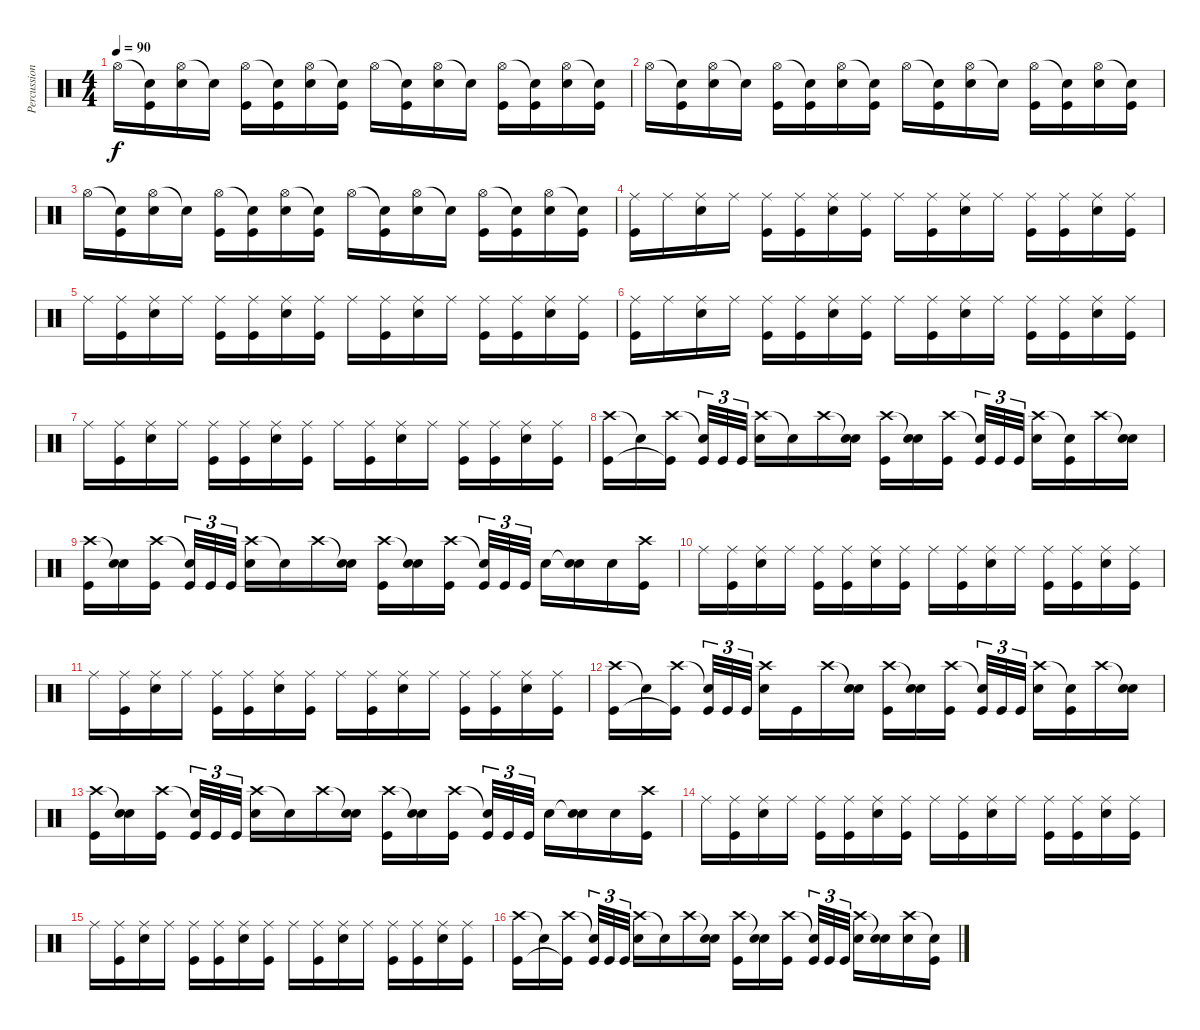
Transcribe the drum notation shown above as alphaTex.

\track ("Percussion" "Percussion") {instrument percussion}
\staff {score}
\articulation defaults
\ts (4 4)
\tempo 90
\clef neutral
\ks c "Hi-Hat (open)".16{dy f}
("Snare (hit)"{t} "Kick (hit)").16 ("Hi-Hat (open)" "Electric Snare (hit)").16 "Snare (hit)"{t}.16 ("Hi-Hat (open)" "Kick (hit)").16 ("Snare (hit)"{t} "Kick (hit)").16 ("Hi-Hat (open)" "Electric Snare (hit)").16 ("Snare (hit)"{t} "Kick (hit)").16 "Hi-Hat (open)".16 ("Snare (hit)"{t} "Kick (hit)").16 ("Hi-Hat (open)" "Electric Snare (hit)").16 "Snare (hit)"{t}.16 ("Hi-Hat (open)" "Kick (hit)").16 ("Snare (hit)"{t} "Kick (hit)").16 ("Hi-Hat (open)" "Electric Snare (hit)").16 ("Snare (hit)"{t} "Kick (hit)").16 |
"Hi-Hat (open)".16 ("Snare (hit)"{t} "Kick (hit)").16 ("Hi-Hat (open)" "Electric Snare (hit)").16 "Snare (hit)"{t}.16 ("Hi-Hat (open)" "Kick (hit)").16 ("Snare (hit)"{t} "Kick (hit)").16 ("Hi-Hat (open)" "Electric Snare (hit)").16 ("Snare (hit)"{t} "Kick (hit)").16 "Hi-Hat (open)".16 ("Snare (hit)"{t} "Kick (hit)").16 ("Hi-Hat (open)" "Electric Snare (hit)").16 "Snare (hit)"{t}.16 ("Hi-Hat (open)" "Kick (hit)").16 ("Snare (hit)"{t} "Kick (hit)").16 ("Hi-Hat (open)" "Electric Snare (hit)").16 ("Snare (hit)"{t} "Kick (hit)").16 |
"Hi-Hat (open)".16 ("Snare (hit)"{t} "Kick (hit)").16 ("Hi-Hat (open)" "Electric Snare (hit)").16 "Snare (hit)"{t}.16 ("Hi-Hat (open)" "Kick (hit)").16 ("Snare (hit)"{t} "Kick (hit)").16 ("Hi-Hat (open)" "Electric Snare (hit)").16 ("Snare (hit)"{t} "Kick (hit)").16 "Hi-Hat (open)".16 ("Snare (hit)"{t} "Kick (hit)").16 ("Hi-Hat (open)" "Electric Snare (hit)").16 "Snare (hit)"{t}.16 ("Hi-Hat (open)" "Kick (hit)").16 ("Snare (hit)"{t} "Kick (hit)").16 ("Hi-Hat (open)" "Electric Snare (hit)").16 ("Snare (hit)"{t} "Kick (hit)").16 |
("Ride (middle)" "Kick (hit)").16 "Ride (middle)".16 ("Ride (middle)" "Electric Snare (hit)").16 "Ride (middle)".16 ("Ride (middle)" "Kick (hit)").16 ("Ride (middle)" "Kick (hit)").16 ("Ride (middle)" "Electric Snare (hit)").16 ("Ride (middle)" "Kick (hit)").16 "Ride (middle)".16 ("Ride (middle)" "Kick (hit)").16 ("Ride (middle)" "Electric Snare (hit)").16 "Ride (middle)".16 ("Ride (middle)" "Kick (hit)").16 ("Ride (middle)" "Kick (hit)").16 ("Ride (middle)" "Electric Snare (hit)").16 ("Ride (middle)" "Kick (hit)").16 |
"Ride (middle)".16 ("Ride (middle)" "Kick (hit)").16 ("Ride (middle)" "Electric Snare (hit)").16 "Ride (middle)".16 ("Ride (middle)" "Kick (hit)").16 ("Ride (middle)" "Kick (hit)").16 ("Ride (middle)" "Electric Snare (hit)").16 ("Ride (middle)" "Kick (hit)").16 "Ride (middle)".16 ("Ride (middle)" "Kick (hit)").16 ("Ride (middle)" "Electric Snare (hit)").16 "Ride (middle)".16 ("Ride (middle)" "Kick (hit)").16 ("Ride (middle)" "Kick (hit)").16 ("Ride (middle)" "Electric Snare (hit)").16 ("Ride (middle)" "Kick (hit)").16 |
("Ride (middle)" "Kick (hit)").16 "Ride (middle)".16 ("Ride (middle)" "Electric Snare (hit)").16 "Ride (middle)".16 ("Ride (middle)" "Kick (hit)").16 ("Ride (middle)" "Kick (hit)").16 ("Ride (middle)" "Electric Snare (hit)").16 ("Ride (middle)" "Kick (hit)").16 "Ride (middle)".16 ("Ride (middle)" "Kick (hit)").16 ("Ride (middle)" "Electric Snare (hit)").16 "Ride (middle)".16 ("Ride (middle)" "Kick (hit)").16 ("Ride (middle)" "Kick (hit)").16 ("Ride (middle)" "Electric Snare (hit)").16 ("Ride (middle)" "Kick (hit)").16 |
"Ride (middle)".16 ("Ride (middle)" "Kick (hit)").16 ("Ride (middle)" "Electric Snare (hit)").16 "Ride (middle)".16 ("Ride (middle)" "Kick (hit)").16 ("Ride (middle)" "Kick (hit)").16 ("Ride (middle)" "Electric Snare (hit)").16 ("Ride (middle)" "Kick (hit)").16 "Ride (middle)".16 ("Ride (middle)" "Kick (hit)").16 ("Ride (middle)" "Electric Snare (hit)").16 "Ride (middle)".16 ("Ride (middle)" "Kick (hit)").16 ("Ride (middle)" "Kick (hit)").16 ("Ride (middle)" "Electric Snare (hit)").16 ("Ride (middle)" "Kick (hit)").16 |
("Crash high (hit)" "Kick (hit)").16 "Snare (hit)"{t}.16 ("Crash high (hit)" "Kick (hit)"{t}).16 ("Snare (hit)"{t} "Kick (hit)").32{tu (3 2)} "Kick (hit)".32{tu (3 2)} "Kick (hit)".32{tu (3 2)} ("Crash high (hit)" "Electric Snare (hit)").16 "Snare (hit)"{t}.16 "Crash high (hit)".16 ("Snare (hit)"{t} "Electric Snare (hit)").16 ("Crash high (hit)" "Kick (hit)").16 ("Snare (hit)"{t} "Electric Snare (hit)").16 ("Crash high (hit)" "Kick (hit)").16 ("Snare (hit)"{t} "Kick (hit)").32{tu (3 2)} "Kick (hit)".32{tu (3 2)} "Kick (hit)".32{tu (3 2)} ("Crash high (hit)" "Electric Snare (hit)").16 ("Snare (hit)"{t} "Kick (hit)").16 "Crash high (hit)".16 ("Snare (hit)"{t} "Electric Snare (hit)").16 |
("Crash high (hit)" "Kick (hit)").16 ("Snare (hit)"{t} "Electric Snare (hit)").16 ("Crash high (hit)" "Kick (hit)").16 ("Snare (hit)"{t} "Kick (hit)").32{tu (3 2)} "Kick (hit)".32{tu (3 2)} "Kick (hit)".32{tu (3 2)} ("Crash high (hit)" "Electric Snare (hit)").16 "Snare (hit)"{t}.16 "Crash high (hit)".16 ("Snare (hit)"{t} "Electric Snare (hit)").16 ("Crash high (hit)" "Kick (hit)").16 ("Snare (hit)"{t} "Electric Snare (hit)").16 ("Crash high (hit)" "Kick (hit)").16 ("Snare (hit)"{t} "Kick (hit)").32{tu (3 2)} "Kick (hit)".32{tu (3 2)} "Kick (hit)".32{tu (3 2)} "Electric Snare (hit)".16 ("Snare (hit)"{t} "Electric Snare (hit)").16 "Electric Snare (hit)".16 ("Crash high (hit)" "Kick (hit)").16 |
"Ride (middle)".16 ("Ride (middle)" "Kick (hit)").16 ("Ride (middle)" "Electric Snare (hit)").16 "Ride (middle)".16 ("Ride (middle)" "Kick (hit)").16 ("Ride (middle)" "Kick (hit)").16 ("Ride (middle)" "Electric Snare (hit)").16 ("Ride (middle)" "Kick (hit)").16 "Ride (middle)".16 ("Ride (middle)" "Kick (hit)").16 ("Ride (middle)" "Electric Snare (hit)").16 "Ride (middle)".16 ("Ride (middle)" "Kick (hit)").16 ("Ride (middle)" "Kick (hit)").16 ("Ride (middle)" "Electric Snare (hit)").16 ("Ride (middle)" "Kick (hit)").16 |
"Ride (middle)".16 ("Ride (middle)" "Kick (hit)").16 ("Ride (middle)" "Electric Snare (hit)").16 "Ride (middle)".16 ("Ride (middle)" "Kick (hit)").16 ("Ride (middle)" "Kick (hit)").16 ("Ride (middle)" "Electric Snare (hit)").16 ("Ride (middle)" "Kick (hit)").16 "Ride (middle)".16 ("Ride (middle)" "Kick (hit)").16 ("Ride (middle)" "Electric Snare (hit)").16 "Ride (middle)".16 ("Ride (middle)" "Kick (hit)").16 ("Ride (middle)" "Kick (hit)").16 ("Ride (middle)" "Electric Snare (hit)").16 ("Ride (middle)" "Kick (hit)").16 |
("Crash high (hit)" "Kick (hit)").16 "Snare (hit)"{t}.16 ("Crash high (hit)" "Kick (hit)"{t}).16 ("Snare (hit)"{t} "Kick (hit)").32{tu (3 2)} "Kick (hit)".32{tu (3 2)} "Kick (hit)".32{tu (3 2)} ("Crash high (hit)" "Electric Snare (hit)").16 "Kick (hit)".16 "Crash high (hit)".16 ("Snare (hit)"{t} "Electric Snare (hit)").16 ("Crash high (hit)" "Kick (hit)").16 ("Snare (hit)"{t} "Electric Snare (hit)").16 ("Crash high (hit)" "Kick (hit)").16 ("Snare (hit)"{t} "Kick (hit)").32{tu (3 2)} "Kick (hit)".32{tu (3 2)} "Kick (hit)".32{tu (3 2)} ("Crash high (hit)" "Electric Snare (hit)").16 ("Snare (hit)"{t} "Kick (hit)").16 "Crash high (hit)".16 ("Snare (hit)"{t} "Electric Snare (hit)").16 |
("Crash high (hit)" "Kick (hit)").16 ("Snare (hit)"{t} "Electric Snare (hit)").16 ("Crash high (hit)" "Kick (hit)").16 ("Snare (hit)"{t} "Kick (hit)").32{tu (3 2)} "Kick (hit)".32{tu (3 2)} "Kick (hit)".32{tu (3 2)} ("Crash high (hit)" "Electric Snare (hit)").16 "Snare (hit)"{t}.16 "Crash high (hit)".16 ("Snare (hit)"{t} "Electric Snare (hit)").16 ("Crash high (hit)" "Kick (hit)").16 ("Snare (hit)"{t} "Electric Snare (hit)").16 ("Crash high (hit)" "Kick (hit)").16 ("Snare (hit)"{t} "Kick (hit)").32{tu (3 2)} "Kick (hit)".32{tu (3 2)} "Kick (hit)".32{tu (3 2)} "Electric Snare (hit)".16 ("Snare (hit)"{t} "Electric Snare (hit)").16 "Electric Snare (hit)".16 ("Crash high (hit)" "Kick (hit)").16 |
"Ride (middle)".16 ("Ride (middle)" "Kick (hit)").16 ("Ride (middle)" "Electric Snare (hit)").16 "Ride (middle)".16 ("Ride (middle)" "Kick (hit)").16 ("Ride (middle)" "Kick (hit)").16 ("Ride (middle)" "Electric Snare (hit)").16 ("Ride (middle)" "Kick (hit)").16 "Ride (middle)".16 ("Ride (middle)" "Kick (hit)").16 ("Ride (middle)" "Electric Snare (hit)").16 "Ride (middle)".16 ("Ride (middle)" "Kick (hit)").16 ("Ride (middle)" "Kick (hit)").16 ("Ride (middle)" "Electric Snare (hit)").16 ("Ride (middle)" "Kick (hit)").16 |
"Ride (middle)".16 ("Ride (middle)" "Kick (hit)").16 ("Ride (middle)" "Electric Snare (hit)").16 "Ride (middle)".16 ("Ride (middle)" "Kick (hit)").16 ("Ride (middle)" "Kick (hit)").16 ("Ride (middle)" "Electric Snare (hit)").16 ("Ride (middle)" "Kick (hit)").16 "Ride (middle)".16 ("Ride (middle)" "Kick (hit)").16 ("Ride (middle)" "Electric Snare (hit)").16 "Ride (middle)".16 ("Ride (middle)" "Kick (hit)").16 ("Ride (middle)" "Kick (hit)").16 ("Ride (middle)" "Electric Snare (hit)").16 ("Ride (middle)" "Kick (hit)").16 |
("Crash high (hit)" "Kick (hit)").16 "Snare (hit)"{t}.16 ("Crash high (hit)" "Kick (hit)"{t}).16 ("Snare (hit)"{t} "Kick (hit)").32{tu (3 2)} "Kick (hit)".32{tu (3 2)} "Kick (hit)".32{tu (3 2)} ("Crash high (hit)" "Electric Snare (hit)").16 "Snare (hit)"{t}.16 "Crash high (hit)".16 ("Snare (hit)"{t} "Electric Snare (hit)").16 ("Crash high (hit)" "Kick (hit)").16 ("Snare (hit)"{t} "Electric Snare (hit)").16 ("Crash high (hit)" "Kick (hit)").16 ("Snare (hit)"{t} "Kick (hit)").32{tu (3 2)} "Kick (hit)".32{tu (3 2)} "Kick (hit)".32{tu (3 2)} ("Crash high (hit)" "Electric Snare (hit)").16 ("Snare (hit)"{t} "Electric Snare (hit)").16 ("Crash high (hit)" "Electric Snare (hit)").16 ("Snare (hit)"{t} "Kick (hit)").16
